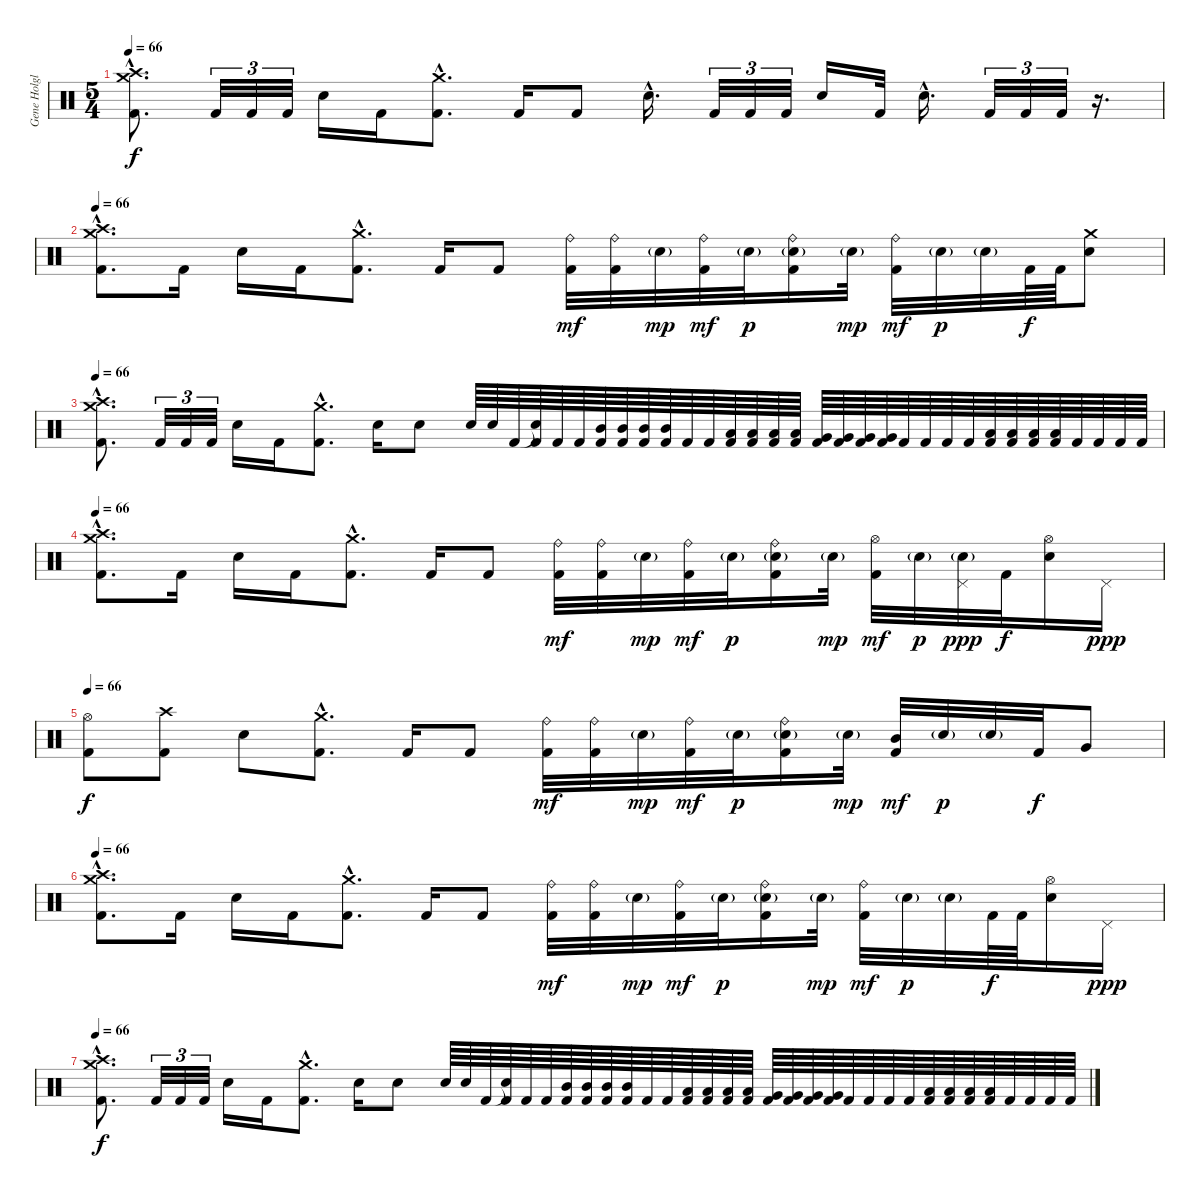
\track ("Gene Holglan" "Gene Holgl") {instrument percussion}
\staff {score}
\articulation defaults
\ts (5 4)
\tempo 66
\clef neutral
\ks c
("Crash medium (hit)"{hac} "Crash high (hit)"{hac} "Kick (hit) 2"{hac}).8{d dy f} "Kick (hit) 2".32{tu (3 2)} "Kick (hit) 2".32{tu (3 2)} "Kick (hit) 2".32{tu (3 2)} "Snare (hit) 2".16 "Kick (hit) 2".16 ("Crash medium (hit)"{hac} "Kick (hit) 2"{hac}).8{d} "Kick (hit) 2".16 "Kick (hit) 2".8 "Snare (hit) 2"{hac}.16{d} "Kick (hit) 2".32{tu (3 2)} "Kick (hit) 2".32{tu (3 2)} "Kick (hit) 2".32{tu (3 2)} "Snare (hit) 2".16 "Kick (hit) 2".32 "Snare (hit) 2"{hac}.16{d} "Kick (hit) 2".32{tu (3 2)} "Kick (hit) 2".32{tu (3 2)} "Kick (hit) 2".32{tu (3 2)} r.16{d} |
\tempo 66
("Crash medium (hit)"{hac} "Crash high (hit)"{hac} "Kick (hit) 2"{hac}).8{d} "Kick (hit) 2".16 "Snare (hit) 2".16 "Kick (hit) 2".16 ("Crash medium (hit)"{hac} "Kick (hit) 2"{hac}).8{d} "Kick (hit) 2".16 "Kick (hit) 2".8 ("Ride (bell)" "Kick (hit) 2").32{dy mf} ("Ride (bell)" "Kick (hit) 2").32 "Snare (hit) 2"{g}.32{dy mp} ("Ride (bell)" "Kick (hit) 2").32{dy mf} "Snare (hit) 2"{g}.32{dy p} ("Ride (bell)" "Snare (hit) 2"{g} "Kick (hit) 2").16 "Snare (hit) 2"{g}.32{dy mp} ("Ride (bell)" "Kick (hit) 2").32{dy mf} "Snare (hit) 2"{g}.32{dy p} "Snare (hit) 2"{g}.32 "Kick (hit) 2".64{dy f} "Kick (hit) 2".64 ("Crash medium (hit)" "Snare (hit) 2").8 |
\tempo 66
("Crash medium (hit)"{hac} "Crash high (hit)"{hac} "Kick (hit) 2"{hac}).8{d} "Kick (hit) 2".32{tu (3 2)} "Kick (hit) 2".32{tu (3 2)} "Kick (hit) 2".32{tu (3 2)} "Snare (hit) 2".16 "Kick (hit) 2".16 ("Crash medium (hit)"{hac} "Kick (hit) 2"{hac}).8{d} "Snare (hit) 2".16 "Snare (hit) 2".8 "Snare (hit) 2".64 "Snare (hit) 2".64 "Kick (hit) 2".64 ("Snare (hit)"{t} "Kick (hit) 2").64 "Kick (hit) 2".64 "Kick (hit) 2".64 ("Mid Tom (hit)" "Kick (hit) 2").64 ("Mid Tom (hit)" "Kick (hit) 2").64 ("Mid Tom (hit)" "Kick (hit) 2").64 ("Mid Tom (hit)" "Kick (hit) 2").64 "Kick (hit) 2".64 "Kick (hit) 2".64 ("Low Tom (hit)" "Kick (hit) 2").64 ("Low Tom (hit)" "Kick (hit) 2").64 ("Low Tom (hit)" "Kick (hit) 2").64 ("Low Tom (hit)" "Kick (hit) 2").64 ("Very Low Tom (hit)" "Kick (hit) 2").64 ("Very Low Tom (hit)" "Kick (hit) 2").64 ("Very Low Tom (hit)" "Kick (hit) 2").64 ("Very Low Tom (hit)" "Kick (hit) 2").64 "Kick (hit) 2".64 "Kick (hit) 2".64 "Kick (hit) 2".64 "Kick (hit) 2".64 ("Low Floor Tom (hit)" "Kick (hit) 2").64 ("Low Floor Tom (hit)" "Kick (hit) 2").64 ("Low Floor Tom (hit)" "Kick (hit) 2").64 ("Low Floor Tom (hit)" "Kick (hit) 2").64 "Kick (hit) 2".64 "Kick (hit) 2".64 "Kick (hit) 2".64 "Kick (hit) 2".64 |
\tempo 66
("Crash medium (hit)"{hac} "Crash high (hit)"{hac} "Kick (hit) 2"{hac}).8{d} "Kick (hit) 2".16 "Snare (hit) 2".16 "Kick (hit) 2".16 ("Crash medium (hit)"{hac} "Kick (hit) 2"{hac}).8{d} "Kick (hit) 2".16 "Kick (hit) 2".8 ("Ride (bell)" "Kick (hit) 2").32{dy mf} ("Ride (bell)" "Kick (hit) 2").32 "Snare (hit) 2"{g}.32{dy mp} ("Ride (bell)" "Kick (hit) 2").32{dy mf} "Snare (hit) 2"{g}.32{dy p} ("Ride (bell)" "Snare (hit) 2"{g} "Kick (hit) 2").16 "Snare (hit) 2"{g}.32{dy mp} ("Hi-Hat (open)" "Kick (hit) 2").32{dy mf} "Snare (hit) 2"{g}.32{dy p} ("Snare (hit) 2"{g} "Pedal Hi-Hat (hit)").32{dy ppp} "Kick (hit) 2".32{dy f} ("Hi-Hat (open)" "Snare (hit) 2").16 "Pedal Hi-Hat (hit)".16{dy ppp} |
\tempo 66
("Hi-Hat (open)" "Kick (hit) 2").8{dy f volume 12} ("Crash high (hit)" "Kick (hit) 2").8 "Snare (hit) 2".8 ("Crash medium (hit)"{hac} "Kick (hit) 2"{hac}).8{d} "Kick (hit) 2".16 "Kick (hit) 2".8 ("Ride (bell)" "Kick (hit) 2").32{dy mf volume 11} ("Ride (bell)" "Kick (hit) 2").32 "Snare (hit) 2"{g}.32{dy mp} ("Ride (bell)" "Kick (hit) 2").32{dy mf} "Snare (hit) 2"{g}.32{dy p} ("Ride (bell)" "Snare (hit) 2"{g} "Kick (hit) 2").16 "Snare (hit) 2"{g}.32{dy mp} ("Mid Tom (hit)" "Kick (hit) 2").32{dy mf} "Snare (hit) 2"{g}.32{dy p} "Snare (hit) 2"{g}.32 "Kick (hit) 2".32{dy f} "Very Low Tom (hit)".8 |
\tempo 66
("Crash medium (hit)"{hac} "Crash high (hit)"{hac} "Kick (hit) 2"{hac}).8{d volume 10} "Kick (hit) 2".16 "Snare (hit) 2".16 "Kick (hit) 2".16 ("Crash medium (hit)"{hac} "Kick (hit) 2"{hac}).8{d volume 9} "Kick (hit) 2".16 "Kick (hit) 2".8 ("Ride (bell)" "Kick (hit) 2").32{dy mf} ("Ride (bell)" "Kick (hit) 2").32 "Snare (hit) 2"{g}.32{dy mp} ("Ride (bell)" "Kick (hit) 2").32{dy mf} "Snare (hit) 2"{g}.32{dy p} ("Ride (bell)" "Snare (hit) 2"{g} "Kick (hit) 2").16 "Snare (hit) 2"{g}.32{dy mp} ("Ride (bell)" "Kick (hit) 2").32{dy mf} "Snare (hit) 2"{g}.32{dy p} "Snare (hit) 2"{g}.32 "Kick (hit) 2".64{dy f} "Kick (hit) 2".64 ("Hi-Hat (open)" "Snare (hit) 2").16 "Pedal Hi-Hat (hit)".16{dy ppp} |
\tempo 66
("Crash medium (hit)"{hac} "Crash high (hit)"{hac} "Kick (hit) 2"{hac}).8{d dy f volume 6} "Kick (hit) 2".32{tu (3 2)} "Kick (hit) 2".32{tu (3 2)} "Kick (hit) 2".32{tu (3 2)} "Snare (hit) 2".16 "Kick (hit) 2".16 ("Crash medium (hit)"{hac} "Kick (hit) 2"{hac}).8{d} "Snare (hit) 2".16 "Snare (hit) 2".8 "Snare (hit) 2".64{volume 5} "Snare (hit) 2".64 "Kick (hit) 2".64 ("Snare (hit)"{t} "Kick (hit) 2").64 "Kick (hit) 2".64 "Kick (hit) 2".64 ("Mid Tom (hit)" "Kick (hit) 2").64 ("Mid Tom (hit)" "Kick (hit) 2").64 ("Mid Tom (hit)" "Kick (hit) 2").64 ("Mid Tom (hit)" "Kick (hit) 2").64 "Kick (hit) 2".64 "Kick (hit) 2".64 ("Low Tom (hit)" "Kick (hit) 2").64 ("Low Tom (hit)" "Kick (hit) 2").64 ("Low Tom (hit)" "Kick (hit) 2").64 ("Low Tom (hit)" "Kick (hit) 2").64 ("Very Low Tom (hit)" "Kick (hit) 2").64 ("Very Low Tom (hit)" "Kick (hit) 2").64 ("Very Low Tom (hit)" "Kick (hit) 2").64 ("Very Low Tom (hit)" "Kick (hit) 2").64 "Kick (hit) 2".64 "Kick (hit) 2".64 "Kick (hit) 2".64 "Kick (hit) 2".64 ("Low Floor Tom (hit)" "Kick (hit) 2").64 ("Low Floor Tom (hit)" "Kick (hit) 2").64 ("Low Floor Tom (hit)" "Kick (hit) 2").64 ("Low Floor Tom (hit)" "Kick (hit) 2").64 "Kick (hit) 2".64 "Kick (hit) 2".64 "Kick (hit) 2".64 "Kick (hit) 2".64
